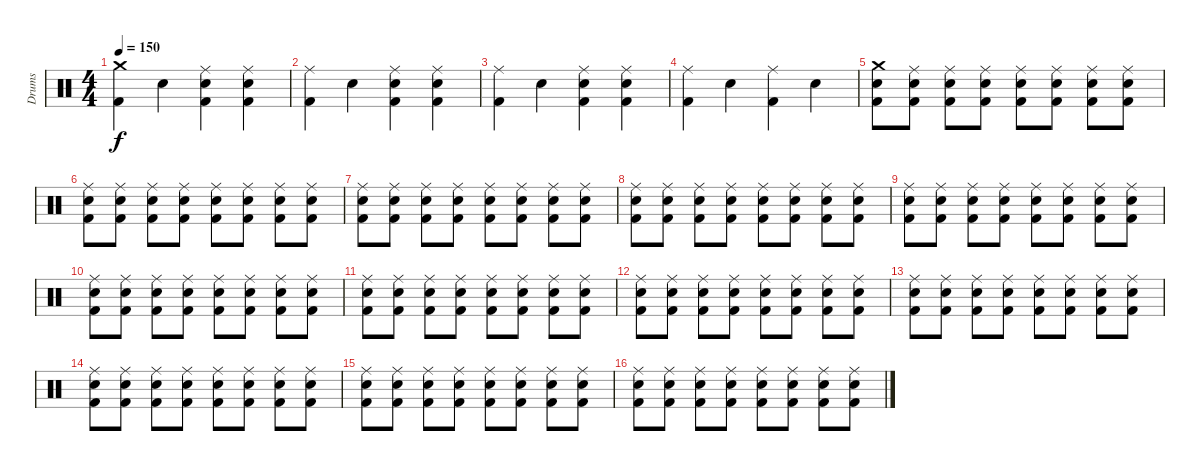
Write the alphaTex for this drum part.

\track ("Drums" "Drums") {instrument percussion}
\staff {score}
\articulation defaults
\ts (4 4)
\tempo 150
\clef neutral
\ks c
("Crash medium (hit)" "Kick (hit) 2").4{dy f} "Electric Snare (hit)".4 ("Ride (middle)" "Electric Snare (hit)" "Kick (hit) 2").4 ("Ride (middle)" "Electric Snare (hit)" "Kick (hit) 2").4 |
("Ride (middle)" "Kick (hit) 2").4 "Electric Snare (hit)".4 ("Ride (middle)" "Electric Snare (hit)" "Kick (hit) 2").4 ("Ride (middle)" "Electric Snare (hit)" "Kick (hit) 2").4 |
("Ride (middle)" "Kick (hit) 2").4 "Electric Snare (hit)".4 ("Ride (middle)" "Electric Snare (hit)" "Kick (hit) 2").4 ("Ride (middle)" "Electric Snare (hit)" "Kick (hit) 2").4 |
("Ride (middle)" "Kick (hit) 2").4 "Electric Snare (hit)".4 ("Ride (middle)" "Kick (hit) 2").4 "Electric Snare (hit)".4 |
("Crash medium (hit)" "Electric Snare (hit)" "Kick (hit) 2").8 ("Ride (middle)" "Electric Snare (hit)" "Kick (hit) 2").8 ("Ride (middle)" "Electric Snare (hit)" "Kick (hit) 2").8 ("Ride (middle)" "Electric Snare (hit)" "Kick (hit) 2").8 ("Ride (middle)" "Electric Snare (hit)" "Kick (hit) 2").8 ("Ride (middle)" "Electric Snare (hit)" "Kick (hit) 2").8 ("Ride (middle)" "Electric Snare (hit)" "Kick (hit) 2").8 ("Ride (middle)" "Electric Snare (hit)" "Kick (hit) 2").8 |
("Ride (middle)" "Electric Snare (hit)" "Kick (hit) 2").8 ("Ride (middle)" "Electric Snare (hit)" "Kick (hit) 2").8 ("Ride (middle)" "Electric Snare (hit)" "Kick (hit) 2").8 ("Ride (middle)" "Electric Snare (hit)" "Kick (hit) 2").8 ("Ride (middle)" "Electric Snare (hit)" "Kick (hit) 2").8 ("Ride (middle)" "Electric Snare (hit)" "Kick (hit) 2").8 ("Ride (middle)" "Electric Snare (hit)" "Kick (hit) 2").8 ("Ride (middle)" "Electric Snare (hit)" "Kick (hit) 2").8 |
("Ride (middle)" "Electric Snare (hit)" "Kick (hit) 2").8 ("Ride (middle)" "Electric Snare (hit)" "Kick (hit) 2").8 ("Ride (middle)" "Electric Snare (hit)" "Kick (hit) 2").8 ("Ride (middle)" "Electric Snare (hit)" "Kick (hit) 2").8 ("Ride (middle)" "Electric Snare (hit)" "Kick (hit) 2").8 ("Ride (middle)" "Electric Snare (hit)" "Kick (hit) 2").8 ("Ride (middle)" "Electric Snare (hit)" "Kick (hit) 2").8 ("Ride (middle)" "Electric Snare (hit)" "Kick (hit) 2").8 |
("Ride (middle)" "Electric Snare (hit)" "Kick (hit) 2").8 ("Ride (middle)" "Electric Snare (hit)" "Kick (hit) 2").8 ("Ride (middle)" "Electric Snare (hit)" "Kick (hit) 2").8 ("Ride (middle)" "Electric Snare (hit)" "Kick (hit) 2").8 ("Ride (middle)" "Electric Snare (hit)" "Kick (hit) 2").8 ("Ride (middle)" "Electric Snare (hit)" "Kick (hit) 2").8 ("Ride (middle)" "Electric Snare (hit)" "Kick (hit) 2").8 ("Ride (middle)" "Electric Snare (hit)" "Kick (hit) 2").8 |
("Ride (middle)" "Electric Snare (hit)" "Kick (hit) 2").8 ("Ride (middle)" "Electric Snare (hit)" "Kick (hit) 2").8 ("Ride (middle)" "Electric Snare (hit)" "Kick (hit) 2").8 ("Ride (middle)" "Electric Snare (hit)" "Kick (hit) 2").8 ("Ride (middle)" "Electric Snare (hit)" "Kick (hit) 2").8 ("Ride (middle)" "Electric Snare (hit)" "Kick (hit) 2").8 ("Ride (middle)" "Electric Snare (hit)" "Kick (hit) 2").8 ("Ride (middle)" "Electric Snare (hit)" "Kick (hit) 2").8 |
("Ride (middle)" "Electric Snare (hit)" "Kick (hit) 2").8 ("Ride (middle)" "Electric Snare (hit)" "Kick (hit) 2").8 ("Ride (middle)" "Electric Snare (hit)" "Kick (hit) 2").8 ("Ride (middle)" "Electric Snare (hit)" "Kick (hit) 2").8 ("Ride (middle)" "Electric Snare (hit)" "Kick (hit) 2").8 ("Ride (middle)" "Electric Snare (hit)" "Kick (hit) 2").8 ("Ride (middle)" "Electric Snare (hit)" "Kick (hit) 2").8 ("Ride (middle)" "Electric Snare (hit)" "Kick (hit) 2").8 |
("Ride (middle)" "Electric Snare (hit)" "Kick (hit) 2").8 ("Ride (middle)" "Electric Snare (hit)" "Kick (hit) 2").8 ("Ride (middle)" "Electric Snare (hit)" "Kick (hit) 2").8 ("Ride (middle)" "Electric Snare (hit)" "Kick (hit) 2").8 ("Ride (middle)" "Electric Snare (hit)" "Kick (hit) 2").8 ("Ride (middle)" "Electric Snare (hit)" "Kick (hit) 2").8 ("Ride (middle)" "Electric Snare (hit)" "Kick (hit) 2").8 ("Ride (middle)" "Electric Snare (hit)" "Kick (hit) 2").8 |
("Ride (middle)" "Electric Snare (hit)" "Kick (hit) 2").8 ("Ride (middle)" "Electric Snare (hit)" "Kick (hit) 2").8 ("Ride (middle)" "Electric Snare (hit)" "Kick (hit) 2").8 ("Ride (middle)" "Electric Snare (hit)" "Kick (hit) 2").8 ("Ride (middle)" "Electric Snare (hit)" "Kick (hit) 2").8 ("Ride (middle)" "Electric Snare (hit)" "Kick (hit) 2").8 ("Ride (middle)" "Electric Snare (hit)" "Kick (hit) 2").8 ("Ride (middle)" "Electric Snare (hit)" "Kick (hit) 2").8 |
("Ride (middle)" "Electric Snare (hit)" "Kick (hit) 2").8 ("Ride (middle)" "Electric Snare (hit)" "Kick (hit) 2").8 ("Ride (middle)" "Electric Snare (hit)" "Kick (hit) 2").8 ("Ride (middle)" "Electric Snare (hit)" "Kick (hit) 2").8 ("Ride (middle)" "Electric Snare (hit)" "Kick (hit) 2").8 ("Ride (middle)" "Electric Snare (hit)" "Kick (hit) 2").8 ("Ride (middle)" "Electric Snare (hit)" "Kick (hit) 2").8 ("Ride (middle)" "Electric Snare (hit)" "Kick (hit) 2").8 |
("Ride (middle)" "Electric Snare (hit)" "Kick (hit) 2").8 ("Ride (middle)" "Electric Snare (hit)" "Kick (hit) 2").8 ("Ride (middle)" "Electric Snare (hit)" "Kick (hit) 2").8 ("Ride (middle)" "Electric Snare (hit)" "Kick (hit) 2").8 ("Ride (middle)" "Electric Snare (hit)" "Kick (hit) 2").8 ("Ride (middle)" "Electric Snare (hit)" "Kick (hit) 2").8 ("Ride (middle)" "Electric Snare (hit)" "Kick (hit) 2").8 ("Ride (middle)" "Electric Snare (hit)" "Kick (hit) 2").8 |
("Ride (middle)" "Electric Snare (hit)" "Kick (hit) 2").8 ("Ride (middle)" "Electric Snare (hit)" "Kick (hit) 2").8 ("Ride (middle)" "Electric Snare (hit)" "Kick (hit) 2").8 ("Ride (middle)" "Electric Snare (hit)" "Kick (hit) 2").8 ("Ride (middle)" "Electric Snare (hit)" "Kick (hit) 2").8 ("Ride (middle)" "Electric Snare (hit)" "Kick (hit) 2").8 ("Ride (middle)" "Electric Snare (hit)" "Kick (hit) 2").8 ("Ride (middle)" "Electric Snare (hit)" "Kick (hit) 2").8 |
("Ride (middle)" "Electric Snare (hit)" "Kick (hit) 2").8 ("Ride (middle)" "Electric Snare (hit)" "Kick (hit) 2").8 ("Ride (middle)" "Electric Snare (hit)" "Kick (hit) 2").8 ("Ride (middle)" "Electric Snare (hit)" "Kick (hit) 2").8 ("Ride (middle)" "Electric Snare (hit)" "Kick (hit) 2").8 ("Ride (middle)" "Electric Snare (hit)" "Kick (hit) 2").8 ("Ride (middle)" "Electric Snare (hit)" "Kick (hit) 2").8 ("Ride (middle)" "Electric Snare (hit)" "Kick (hit) 2").8
